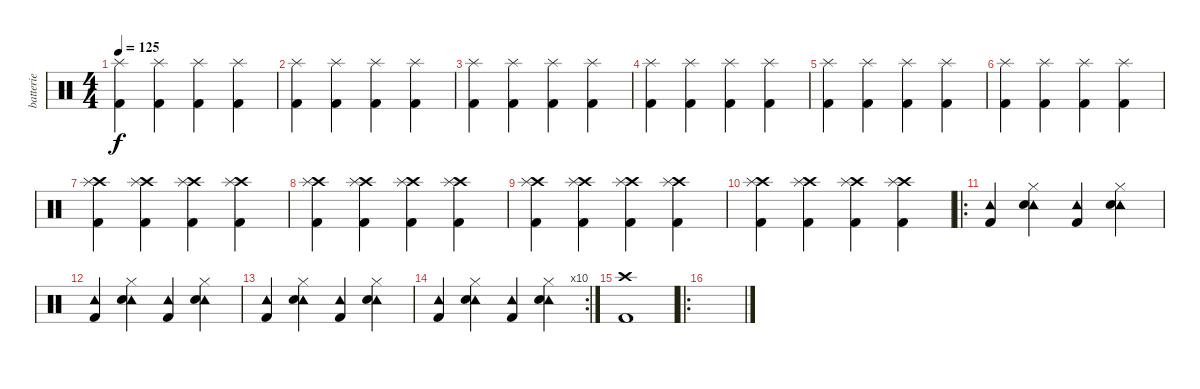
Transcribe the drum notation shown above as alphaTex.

\track ("batterie" "batterie") {instrument percussion}
\staff {score}
\articulation defaults
\ts (4 4)
\tempo 125
\clef neutral
\ks c
("Splash (hit)" "Kick (hit) 2").4{dy f} ("Splash (hit)" "Kick (hit) 2").4 ("Splash (hit)" "Kick (hit) 2").4 ("Splash (hit)" "Kick (hit) 2").4 |
("Splash (hit)" "Kick (hit) 2").4 ("Splash (hit)" "Kick (hit) 2").4 ("Splash (hit)" "Kick (hit) 2").4 ("Splash (hit)" "Kick (hit) 2").4 |
("Splash (hit)" "Kick (hit) 2").4 ("Splash (hit)" "Kick (hit) 2").4 ("Splash (hit)" "Kick (hit) 2").4 ("Splash (hit)" "Kick (hit) 2").4 |
("Splash (hit)" "Kick (hit) 2").4 ("Splash (hit)" "Kick (hit) 2").4 ("Splash (hit)" "Kick (hit) 2").4 ("Splash (hit)" "Kick (hit) 2").4 |
("Splash (hit)" "Kick (hit) 2").4 ("Splash (hit)" "Kick (hit) 2").4 ("Splash (hit)" "Kick (hit) 2").4 ("Splash (hit)" "Kick (hit) 2").4 |
("Splash (hit)" "Kick (hit) 2").4 ("Splash (hit)" "Kick (hit) 2").4 ("Splash (hit)" "Kick (hit) 2").4 ("Splash (hit)" "Kick (hit) 2").4 |
("Crash high (hit)" "Splash (hit)" "Kick (hit) 2").4 ("Crash high (hit)" "Splash (hit)" "Kick (hit) 2").4 ("Crash high (hit)" "Splash (hit)" "Kick (hit) 2").4 ("Crash high (hit)" "Splash (hit)" "Kick (hit) 2").4 |
("Crash high (hit)" "Splash (hit)" "Kick (hit) 2").4 ("Crash high (hit)" "Splash (hit)" "Kick (hit) 2").4 ("Crash high (hit)" "Splash (hit)" "Kick (hit) 2").4 ("Crash high (hit)" "Splash (hit)" "Kick (hit) 2").4 |
("Crash high (hit)" "Splash (hit)" "Kick (hit) 2").4 ("Crash high (hit)" "Splash (hit)" "Kick (hit) 2").4 ("Crash high (hit)" "Splash (hit)" "Kick (hit) 2").4 ("Crash high (hit)" "Splash (hit)" "Kick (hit) 2").4 |
("Crash high (hit)" "Splash (hit)" "Kick (hit) 2").4 ("Crash high (hit)" "Splash (hit)" "Kick (hit) 2").4 ("Crash high (hit)" "Splash (hit)" "Kick (hit) 2").4 ("Crash high (hit)" "Splash (hit)" "Kick (hit) 2").4 |
\ro
("Tambourine (hit)" "Kick (hit) 2").4 ("Tambourine (hit)" "Hi-Hat (closed)" "Snare (hit) 2").4 ("Tambourine (hit)" "Kick (hit) 2").4 ("Tambourine (hit)" "Hi-Hat (closed)" "Snare (hit) 2").4 |
("Tambourine (hit)" "Kick (hit) 2").4 ("Tambourine (hit)" "Hi-Hat (closed)" "Snare (hit) 2").4 ("Tambourine (hit)" "Kick (hit) 2").4 ("Tambourine (hit)" "Hi-Hat (closed)" "Snare (hit) 2").4 |
("Tambourine (hit)" "Kick (hit) 2").4 ("Tambourine (hit)" "Hi-Hat (closed)" "Snare (hit) 2").4 ("Tambourine (hit)" "Kick (hit) 2").4 ("Tambourine (hit)" "Hi-Hat (closed)" "Snare (hit) 2").4 |
\rc 10
("Tambourine (hit)" "Kick (hit) 2").4 ("Tambourine (hit)" "Hi-Hat (closed)" "Snare (hit) 2").4 ("Tambourine (hit)" "Kick (hit) 2").4 ("Tambourine (hit)" "Hi-Hat (closed)" "Snare (hit) 2").4 |
("Crash high (hit)" "Kick (hit) 2").1 |
\ro
